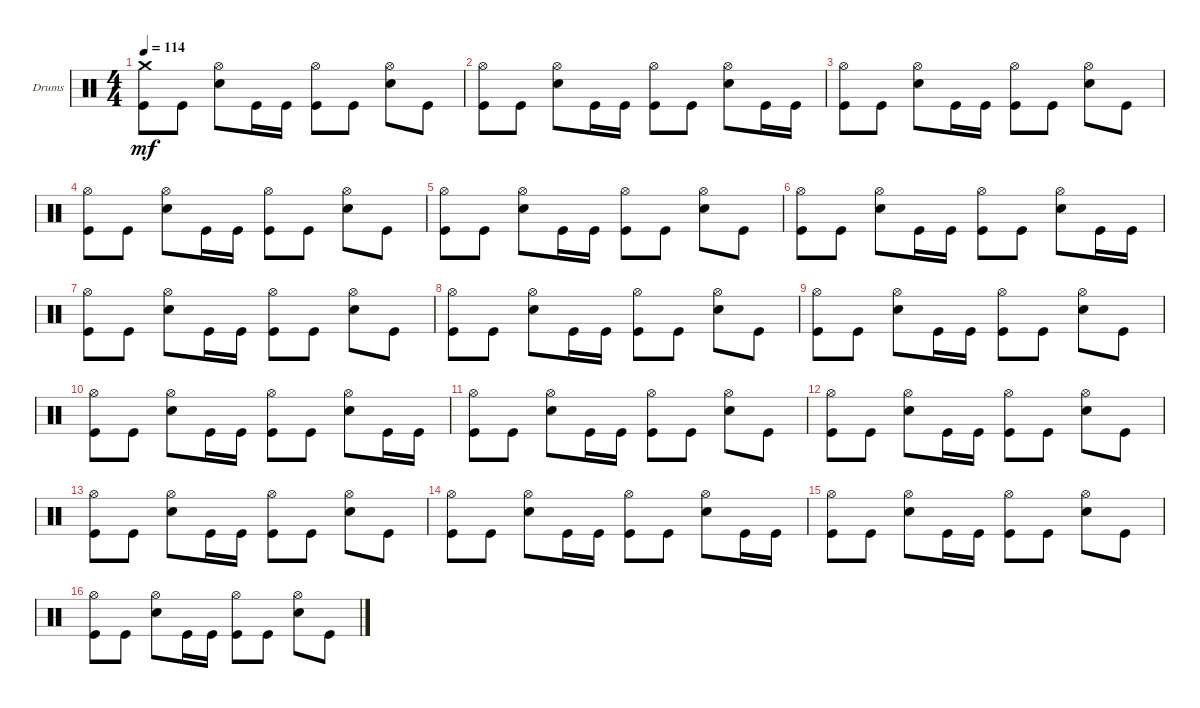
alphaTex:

\defaultSystemsLayout 4
\bracketExtendMode groupsimilarinstruments
\firstSystemTrackNameOrientation horizontal
\otherSystemsTrackNameOrientation horizontal
\track ("Drums Inferno" "Drums") {instrument percussion}
\staff {score}
\articulation defaults
\ts (4 4)
\tempo 114
\clef neutral
\scale
0.333333
\ks c
("Kick (hit)" "Crash medium (hit)").8{dy mf} "Kick (hit)".8 ("Hi-Hat (open)" "Snare (hit) 2").8 "Kick (hit)".16 "Kick (hit)".16 ("Hi-Hat (open)" "Kick (hit)").8 "Kick (hit)".8 ("Hi-Hat (open)" "Snare (hit) 2").8 "Kick (hit)".8 |
\scale
0.333333 ("Kick (hit)" "Hi-Hat (open)").8 "Kick (hit)".8 ("Hi-Hat (open)" "Snare (hit) 2").8 "Kick (hit)".16 "Kick (hit)".16 ("Hi-Hat (open)" "Kick (hit)").8 "Kick (hit)".8 ("Hi-Hat (open)" "Snare (hit) 2").8 "Kick (hit)".16 "Kick (hit)".16 |
\scale
0.333333 ("Kick (hit)" "Hi-Hat (open)").8 "Kick (hit)".8 ("Hi-Hat (open)" "Snare (hit) 2").8 "Kick (hit)".16 "Kick (hit)".16 ("Hi-Hat (open)" "Kick (hit)").8 "Kick (hit)".8 ("Hi-Hat (open)" "Snare (hit) 2").8 "Kick (hit)".8 |
\scale
0.333333 ("Kick (hit)" "Hi-Hat (open)").8 "Kick (hit)".8 ("Hi-Hat (open)" "Snare (hit) 2").8 "Kick (hit)".16 "Kick (hit)".16 ("Hi-Hat (open)" "Kick (hit)").8 "Kick (hit)".8 ("Hi-Hat (open)" "Snare (hit) 2").8 "Kick (hit)".8 |
\scale
0.333333 ("Kick (hit)" "Hi-Hat (open)").8 "Kick (hit)".8 ("Hi-Hat (open)" "Snare (hit) 2").8 "Kick (hit)".16 "Kick (hit)".16 ("Hi-Hat (open)" "Kick (hit)").8 "Kick (hit)".8 ("Hi-Hat (open)" "Snare (hit) 2").8 "Kick (hit)".8 |
\scale
0.333333 ("Kick (hit)" "Hi-Hat (open)").8 "Kick (hit)".8 ("Hi-Hat (open)" "Snare (hit) 2").8 "Kick (hit)".16 "Kick (hit)".16 ("Hi-Hat (open)" "Kick (hit)").8 "Kick (hit)".8 ("Hi-Hat (open)" "Snare (hit) 2").8 "Kick (hit)".16 "Kick (hit)".16 |
\scale
0.333333 ("Kick (hit)" "Hi-Hat (open)").8 "Kick (hit)".8 ("Hi-Hat (open)" "Snare (hit) 2").8 "Kick (hit)".16 "Kick (hit)".16 ("Hi-Hat (open)" "Kick (hit)").8 "Kick (hit)".8 ("Hi-Hat (open)" "Snare (hit) 2").8 "Kick (hit)".8 |
\scale
0.333333 ("Kick (hit)" "Hi-Hat (open)").8 "Kick (hit)".8 ("Hi-Hat (open)" "Snare (hit) 2").8 "Kick (hit)".16 "Kick (hit)".16 ("Hi-Hat (open)" "Kick (hit)").8 "Kick (hit)".8 ("Hi-Hat (open)" "Snare (hit) 2").8 "Kick (hit)".8 |
\scale
0.333333 ("Kick (hit)" "Hi-Hat (open)").8 "Kick (hit)".8 ("Hi-Hat (open)" "Snare (hit) 2").8 "Kick (hit)".16 "Kick (hit)".16 ("Hi-Hat (open)" "Kick (hit)").8 "Kick (hit)".8 ("Hi-Hat (open)" "Snare (hit) 2").8 "Kick (hit)".8 |
\scale
0.333333 ("Kick (hit)" "Hi-Hat (open)").8 "Kick (hit)".8 ("Hi-Hat (open)" "Snare (hit) 2").8 "Kick (hit)".16 "Kick (hit)".16 ("Hi-Hat (open)" "Kick (hit)").8 "Kick (hit)".8 ("Hi-Hat (open)" "Snare (hit) 2").8 "Kick (hit)".16 "Kick (hit)".16 |
\scale
0.333333 ("Kick (hit)" "Hi-Hat (open)").8 "Kick (hit)".8 ("Hi-Hat (open)" "Snare (hit) 2").8 "Kick (hit)".16 "Kick (hit)".16 ("Hi-Hat (open)" "Kick (hit)").8 "Kick (hit)".8 ("Hi-Hat (open)" "Snare (hit) 2").8 "Kick (hit)".8 |
\scale
0.333333 ("Kick (hit)" "Hi-Hat (open)").8 "Kick (hit)".8 ("Hi-Hat (open)" "Snare (hit) 2").8 "Kick (hit)".16 "Kick (hit)".16 ("Hi-Hat (open)" "Kick (hit)").8 "Kick (hit)".8 ("Hi-Hat (open)" "Snare (hit) 2").8 "Kick (hit)".8 |
\scale
0.333333 ("Kick (hit)" "Hi-Hat (open)").8 "Kick (hit)".8 ("Hi-Hat (open)" "Snare (hit) 2").8 "Kick (hit)".16 "Kick (hit)".16 ("Hi-Hat (open)" "Kick (hit)").8 "Kick (hit)".8 ("Hi-Hat (open)" "Snare (hit) 2").8 "Kick (hit)".8 |
\scale
0.333333 ("Kick (hit)" "Hi-Hat (open)").8 "Kick (hit)".8 ("Hi-Hat (open)" "Snare (hit) 2").8 "Kick (hit)".16 "Kick (hit)".16 ("Hi-Hat (open)" "Kick (hit)").8 "Kick (hit)".8 ("Hi-Hat (open)" "Snare (hit) 2").8 "Kick (hit)".16 "Kick (hit)".16 |
\scale
0.333333 ("Kick (hit)" "Hi-Hat (open)").8 "Kick (hit)".8 ("Hi-Hat (open)" "Snare (hit) 2").8 "Kick (hit)".16 "Kick (hit)".16 ("Hi-Hat (open)" "Kick (hit)").8 "Kick (hit)".8 ("Hi-Hat (open)" "Snare (hit) 2").8 "Kick (hit)".8 |
\scale
0.333333 ("Kick (hit)" "Hi-Hat (open)").8 "Kick (hit)".8 ("Hi-Hat (open)" "Snare (hit) 2").8 "Kick (hit)".16 "Kick (hit)".16 ("Hi-Hat (open)" "Kick (hit)").8 "Kick (hit)".8 ("Hi-Hat (open)" "Snare (hit) 2").8 "Kick (hit)".8
